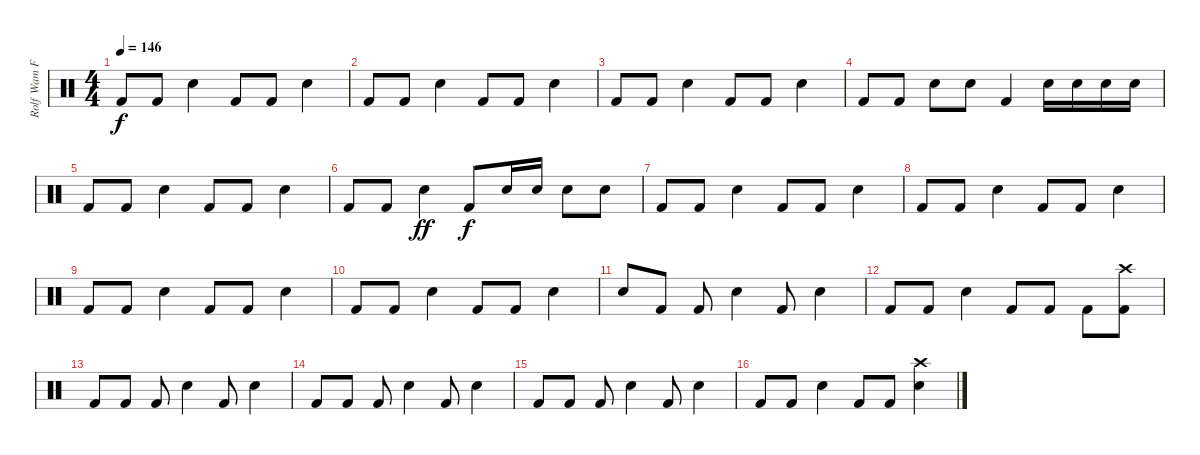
\track ("Rolf Wam Fjell" "Rolf Wam F") {instrument percussion}
\staff {score}
\articulation defaults
\ts (4 4)
\tempo 146
\clef neutral
\ks c "Kick (hit) 2".8{dy f} "Kick (hit) 2".8 "Electric Snare (hit)".4 "Kick (hit) 2".8 "Kick (hit) 2".8 "Electric Snare (hit)".4
|
"Kick (hit) 2".8 "Kick (hit) 2".8 "Electric Snare (hit)".4 "Kick (hit) 2".8 "Kick (hit) 2".8 "Electric Snare (hit)".4 |
"Kick (hit) 2".8 "Kick (hit) 2".8 "Electric Snare (hit)".4 "Kick (hit) 2".8 "Kick (hit) 2".8 "Electric Snare (hit)".4 |
"Kick (hit) 2".8 "Kick (hit) 2".8 "Electric Snare (hit)".8 "Electric Snare (hit)".8 "Kick (hit) 2".4 "Electric Snare (hit)".16 "Electric Snare (hit)".16 "Electric Snare (hit)".16 "Electric Snare (hit)".16 |
"Kick (hit) 2".8 "Kick (hit) 2".8 "Electric Snare (hit)".4 "Kick (hit) 2".8 "Kick (hit) 2".8 "Electric Snare (hit)".4 |
"Kick (hit) 2".8 "Kick (hit) 2".8 "Electric Snare (hit)".4{dy ff} "Kick (hit) 2".8{dy f} "Electric Snare (hit)".16 "Electric Snare (hit)".16 "Electric Snare (hit)".8 "Electric Snare (hit)".8 |
"Kick (hit) 2".8 "Kick (hit) 2".8 "Electric Snare (hit)".4 "Kick (hit) 2".8 "Kick (hit) 2".8 "Electric Snare (hit)".4 |
"Kick (hit) 2".8 "Kick (hit) 2".8 "Electric Snare (hit)".4 "Kick (hit) 2".8 "Kick (hit) 2".8 "Electric Snare (hit)".4 |
"Kick (hit) 2".8 "Kick (hit) 2".8 "Electric Snare (hit)".4 "Kick (hit) 2".8 "Kick (hit) 2".8 "Electric Snare (hit)".4 |
"Kick (hit) 2".8 "Kick (hit) 2".8 "Electric Snare (hit)".4 "Kick (hit) 2".8 "Kick (hit) 2".8 "Electric Snare (hit)".4 |
"Electric Snare (hit)".8 "Kick (hit) 2".8 "Kick (hit) 2".8 "Electric Snare (hit)".4 "Kick (hit) 2".8 "Electric Snare (hit)".4 |
"Kick (hit) 2".8 "Kick (hit) 2".8 "Electric Snare (hit)".4 "Kick (hit) 2".8 "Kick (hit) 2".8 "Kick (hit) 2".8 ("Kick (hit) 2" "Crash high (hit)").8 |
"Kick (hit) 2".8 "Kick (hit) 2".8 "Kick (hit) 2".8 "Electric Snare (hit)".4 "Kick (hit) 2".8 "Electric Snare (hit)".4 |
"Kick (hit) 2".8 "Kick (hit) 2".8 "Kick (hit) 2".8 "Electric Snare (hit)".4 "Kick (hit) 2".8 "Electric Snare (hit)".4 |
"Kick (hit) 2".8 "Kick (hit) 2".8 "Kick (hit) 2".8 "Electric Snare (hit)".4 "Kick (hit) 2".8 "Electric Snare (hit)".4 |
"Kick (hit) 2".8 "Kick (hit) 2".8 "Electric Snare (hit)".4 "Kick (hit) 2".8 "Kick (hit) 2".8 ("Electric Snare (hit)" "Crash high (hit)").4
